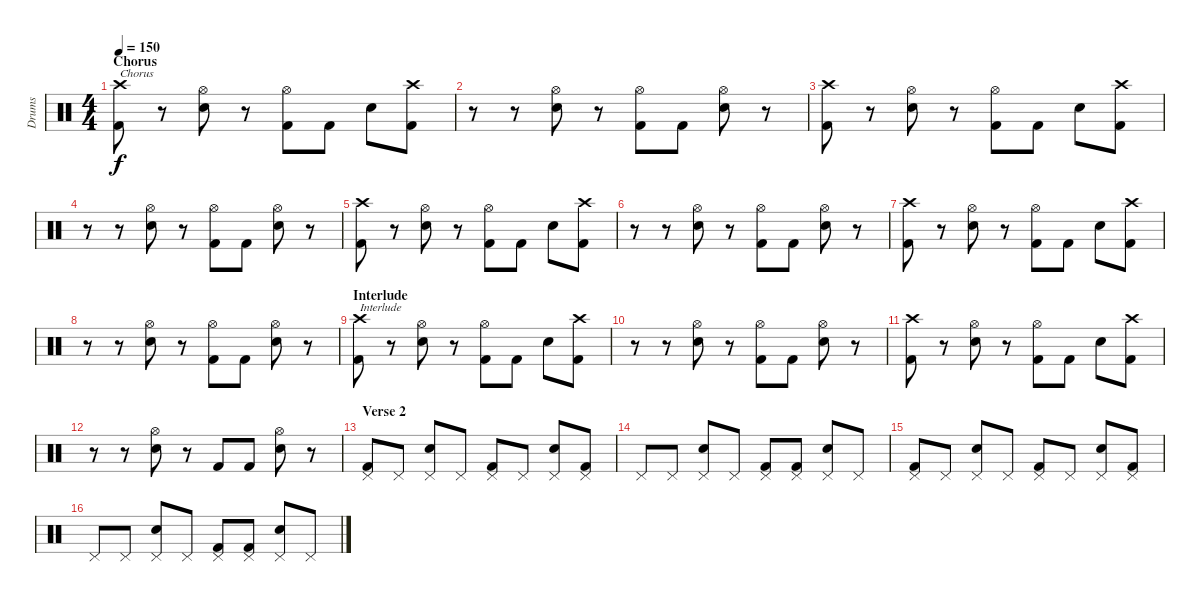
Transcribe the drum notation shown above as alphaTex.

\track ("Drums" "Drums") {instrument percussion}
\staff {score}
\articulation defaults
\ts (4 4)
\section ("" "Chorus")
\tempo 150
\clef neutral
\ks c
("Crash high (hit)" "Kick (hit) 2").8{txt "Chorus" dy f} r.8 ("Hi-Hat (open)" "Electric Snare (hit)").8 r.8 ("Hi-Hat (open)" "Kick (hit) 2").8 "Kick (hit) 2".8 "Electric Snare (hit)".8 ("Crash high (hit)" "Kick (hit) 2").8 |
r.8 r.8 ("Hi-Hat (open)" "Electric Snare (hit)").8 r.8 ("Hi-Hat (open)" "Kick (hit) 2").8 "Kick (hit) 2".8 ("Hi-Hat (open)" "Electric Snare (hit)").8 r.8 |
("Crash high (hit)" "Kick (hit) 2").8 r.8 ("Hi-Hat (open)" "Electric Snare (hit)").8 r.8 ("Hi-Hat (open)" "Kick (hit) 2").8 "Kick (hit) 2".8 "Electric Snare (hit)".8 ("Crash high (hit)" "Kick (hit) 2").8 |
r.8 r.8 ("Hi-Hat (open)" "Electric Snare (hit)").8 r.8 ("Hi-Hat (open)" "Kick (hit) 2").8 "Kick (hit) 2".8 ("Hi-Hat (open)" "Electric Snare (hit)").8 r.8 |
("Crash high (hit)" "Kick (hit) 2").8 r.8 ("Hi-Hat (open)" "Electric Snare (hit)").8 r.8 ("Hi-Hat (open)" "Kick (hit) 2").8 "Kick (hit) 2".8 "Electric Snare (hit)".8 ("Crash high (hit)" "Kick (hit) 2").8 |
r.8 r.8 ("Hi-Hat (open)" "Electric Snare (hit)").8 r.8 ("Hi-Hat (open)" "Kick (hit) 2").8 "Kick (hit) 2".8 ("Hi-Hat (open)" "Electric Snare (hit)").8 r.8 |
("Crash high (hit)" "Kick (hit) 2").8 r.8 ("Hi-Hat (open)" "Electric Snare (hit)").8 r.8 ("Hi-Hat (open)" "Kick (hit) 2").8 "Kick (hit) 2".8 "Electric Snare (hit)".8 ("Crash high (hit)" "Kick (hit) 2").8 |
r.8 r.8 ("Hi-Hat (open)" "Electric Snare (hit)").8 r.8 ("Hi-Hat (open)" "Kick (hit) 2").8 "Kick (hit) 2".8 ("Hi-Hat (open)" "Electric Snare (hit)").8 r.8 |
\section ("" "Interlude")
("Crash high (hit)" "Kick (hit) 2").8{txt "Interlude"} r.8 ("Hi-Hat (open)" "Electric Snare (hit)").8 r.8 ("Hi-Hat (open)" "Kick (hit) 2").8 "Kick (hit) 2".8 "Electric Snare (hit)".8 ("Crash high (hit)" "Kick (hit) 2").8 |
r.8 r.8 ("Hi-Hat (open)" "Electric Snare (hit)").8 r.8 ("Hi-Hat (open)" "Kick (hit) 2").8 "Kick (hit) 2".8 ("Hi-Hat (open)" "Electric Snare (hit)").8 r.8 |
("Crash high (hit)" "Kick (hit) 2").8 r.8 ("Hi-Hat (open)" "Electric Snare (hit)").8 r.8 ("Hi-Hat (open)" "Kick (hit) 2").8 "Kick (hit) 2".8 "Electric Snare (hit)".8 ("Crash high (hit)" "Kick (hit) 2").8 |
r.8 r.8 ("Hi-Hat (open)" "Electric Snare (hit)").8 r.8 "Kick (hit) 2".8 "Kick (hit) 2".8 ("Hi-Hat (open)" "Electric Snare (hit)").8 r.8 |
\section ("" "Verse 2")
("Pedal Hi-Hat (hit)" "Kick (hit) 2").8 "Pedal Hi-Hat (hit)".8 ("Pedal Hi-Hat (hit)" "Electric Snare (hit)").8 "Pedal Hi-Hat (hit)".8 ("Pedal Hi-Hat (hit)" "Kick (hit) 2").8 "Pedal Hi-Hat (hit)".8 ("Pedal Hi-Hat (hit)" "Electric Snare (hit)").8 ("Pedal Hi-Hat (hit)" "Kick (hit) 2").8 |
"Pedal Hi-Hat (hit)".8 "Pedal Hi-Hat (hit)".8 ("Pedal Hi-Hat (hit)" "Electric Snare (hit)").8 "Pedal Hi-Hat (hit)".8 ("Pedal Hi-Hat (hit)" "Kick (hit) 2").8 ("Pedal Hi-Hat (hit)" "Kick (hit) 2").8 ("Pedal Hi-Hat (hit)" "Electric Snare (hit)").8 "Pedal Hi-Hat (hit)".8 |
("Pedal Hi-Hat (hit)" "Kick (hit) 2").8 "Pedal Hi-Hat (hit)".8 ("Pedal Hi-Hat (hit)" "Electric Snare (hit)").8 "Pedal Hi-Hat (hit)".8 ("Pedal Hi-Hat (hit)" "Kick (hit) 2").8 "Pedal Hi-Hat (hit)".8 ("Pedal Hi-Hat (hit)" "Electric Snare (hit)").8 ("Pedal Hi-Hat (hit)" "Kick (hit) 2").8 |
"Pedal Hi-Hat (hit)".8 "Pedal Hi-Hat (hit)".8 ("Pedal Hi-Hat (hit)" "Electric Snare (hit)").8 "Pedal Hi-Hat (hit)".8 ("Pedal Hi-Hat (hit)" "Kick (hit) 2").8 ("Pedal Hi-Hat (hit)" "Kick (hit) 2").8 ("Pedal Hi-Hat (hit)" "Electric Snare (hit)").8 "Pedal Hi-Hat (hit)".8
